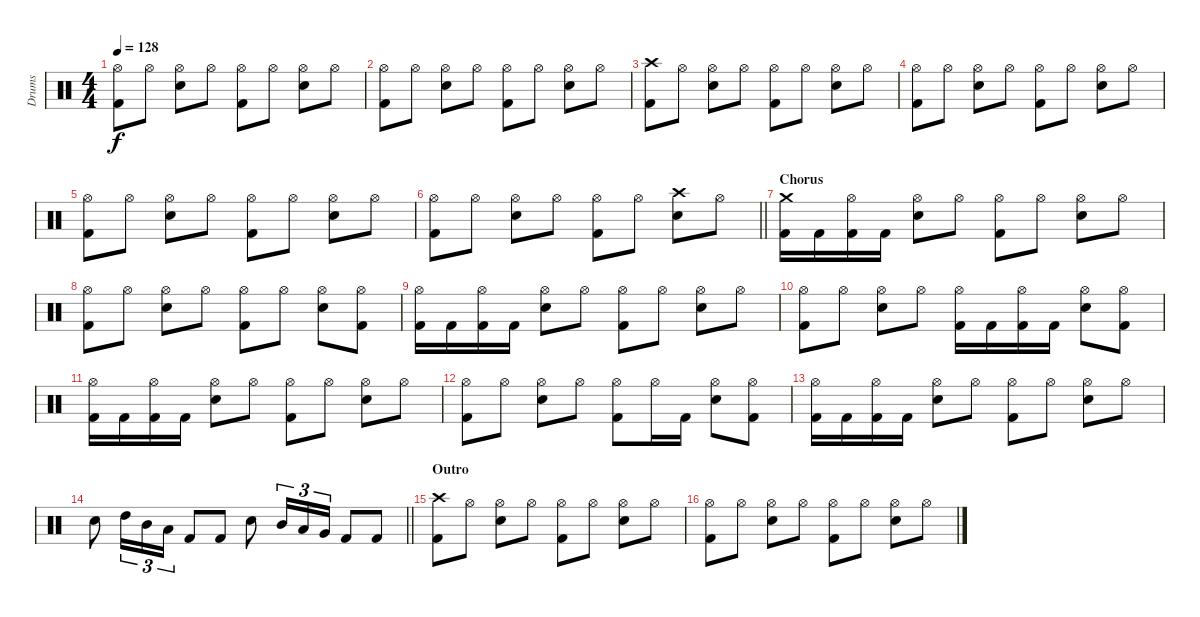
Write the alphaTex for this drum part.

\track ("Drums" "Drums") {instrument percussion}
\staff {score}
\articulation defaults
\ts (4 4)
\tempo 128
\clef neutral
\ks c
("Hi-Hat (open)" "Kick (hit) 2").8{dy f} "Hi-Hat (open)".8 ("Hi-Hat (open)" "Snare (hit) 2").8 "Hi-Hat (open)".8 ("Hi-Hat (open)" "Kick (hit) 2").8 "Hi-Hat (open)".8 ("Hi-Hat (open)" "Snare (hit) 2").8 "Hi-Hat (open)".8 |
("Hi-Hat (open)" "Kick (hit) 2").8 "Hi-Hat (open)".8 ("Hi-Hat (open)" "Snare (hit) 2").8 "Hi-Hat (open)".8 ("Hi-Hat (open)" "Kick (hit) 2").8 "Hi-Hat (open)".8 ("Hi-Hat (open)" "Snare (hit) 2").8 "Hi-Hat (open)".8 |
("Crash high (hit)" "Kick (hit) 2").8 "Hi-Hat (open)".8 ("Hi-Hat (open)" "Snare (hit) 2").8 "Hi-Hat (open)".8 ("Hi-Hat (open)" "Kick (hit) 2").8 "Hi-Hat (open)".8 ("Hi-Hat (open)" "Snare (hit) 2").8 "Hi-Hat (open)".8 |
("Hi-Hat (open)" "Kick (hit) 2").8 "Hi-Hat (open)".8 ("Hi-Hat (open)" "Snare (hit) 2").8 "Hi-Hat (open)".8 ("Hi-Hat (open)" "Kick (hit) 2").8 "Hi-Hat (open)".8 ("Hi-Hat (open)" "Snare (hit) 2").8 "Hi-Hat (open)".8 |
("Hi-Hat (open)" "Kick (hit) 2").8 "Hi-Hat (open)".8 ("Hi-Hat (open)" "Snare (hit) 2").8 "Hi-Hat (open)".8 ("Hi-Hat (open)" "Kick (hit) 2").8 "Hi-Hat (open)".8 ("Hi-Hat (open)" "Snare (hit) 2").8 "Hi-Hat (open)".8 |
\barLineRight lightlight
("Hi-Hat (open)" "Kick (hit) 2").8 "Hi-Hat (open)".8 ("Hi-Hat (open)" "Snare (hit) 2").8 "Hi-Hat (open)".8 ("Hi-Hat (open)" "Kick (hit) 2").8 "Hi-Hat (open)".8 ("Crash high (hit)" "Snare (hit) 2").8 "Hi-Hat (open)".8 |
\section ("" "Chorus")
("Crash medium (hit)" "Kick (hit) 2").16 "Kick (hit) 2".16 ("Hi-Hat (open)" "Kick (hit) 2").16 "Kick (hit) 2".16 ("Hi-Hat (open)" "Snare (hit) 2").8 "Hi-Hat (open)".8 ("Hi-Hat (open)" "Kick (hit) 2").8 "Hi-Hat (open)".8 ("Hi-Hat (open)" "Snare (hit) 2").8 "Hi-Hat (open)".8 |
("Hi-Hat (open)" "Kick (hit) 2").8 "Hi-Hat (open)".8 ("Hi-Hat (open)" "Snare (hit) 2").8 "Hi-Hat (open)".8 ("Hi-Hat (open)" "Kick (hit) 2").8 "Hi-Hat (open)".8 ("Hi-Hat (open)" "Snare (hit) 2").8 ("Hi-Hat (open)" "Kick (hit) 2").8 |
("Hi-Hat (open)" "Kick (hit) 2").16 "Kick (hit) 2".16 ("Hi-Hat (open)" "Kick (hit) 2").16 "Kick (hit) 2".16 ("Hi-Hat (open)" "Snare (hit) 2").8 "Hi-Hat (open)".8 ("Hi-Hat (open)" "Kick (hit) 2").8 "Hi-Hat (open)".8 ("Hi-Hat (open)" "Snare (hit) 2").8 "Hi-Hat (open)".8 |
("Hi-Hat (open)" "Kick (hit) 2").8 "Hi-Hat (open)".8 ("Hi-Hat (open)" "Snare (hit) 2").8 "Hi-Hat (open)".8 ("Hi-Hat (open)" "Kick (hit) 2").16 "Kick (hit) 2".16 ("Hi-Hat (open)" "Kick (hit) 2").16 "Kick (hit) 2".16 ("Hi-Hat (open)" "Snare (hit) 2").8 ("Hi-Hat (open)" "Kick (hit) 2").8 |
("Hi-Hat (open)" "Kick (hit) 2").16 "Kick (hit) 2".16 ("Hi-Hat (open)" "Kick (hit) 2").16 "Kick (hit) 2".16 ("Hi-Hat (open)" "Snare (hit) 2").8 "Hi-Hat (open)".8 ("Hi-Hat (open)" "Kick (hit) 2").8 "Hi-Hat (open)".8 ("Hi-Hat (open)" "Snare (hit) 2").8 "Hi-Hat (open)".8 |
("Hi-Hat (open)" "Kick (hit) 2").8 "Hi-Hat (open)".8 ("Hi-Hat (open)" "Snare (hit) 2").8 "Hi-Hat (open)".8 ("Hi-Hat (open)" "Kick (hit) 2").8 "Hi-Hat (open)".16 "Kick (hit) 2".16 ("Hi-Hat (open)" "Snare (hit) 2").8 ("Hi-Hat (open)" "Kick (hit) 2").8 |
("Hi-Hat (open)" "Kick (hit) 2").16 "Kick (hit) 2".16 ("Hi-Hat (open)" "Kick (hit) 2").16 "Kick (hit) 2".16 ("Hi-Hat (open)" "Snare (hit) 2").8 "Hi-Hat (open)".8 ("Hi-Hat (open)" "Kick (hit) 2").8 "Hi-Hat (open)".8 ("Hi-Hat (open)" "Snare (hit) 2").8 "Hi-Hat (open)".8 |
\barLineRight lightlight "Snare (hit) 2".8 "High Tom (hit)".16{tu (3 2)} "Mid Tom (hit)".16{tu (3 2)} "Low Tom (hit)".16{tu (3 2)} "Kick (hit) 2".8 "Kick (hit) 2".8 "Snare (hit) 2".8 "Mid Tom (hit)".16{tu (3 2)} "Low Tom (hit)".16{tu (3 2)} "Very Low Tom (hit)".16{tu (3 2)} "Kick (hit) 2".8 "Kick (hit) 2".8
|
\section ("" "Outro")
("Crash high (hit)" "Kick (hit) 2").8 "Hi-Hat (open)".8 ("Hi-Hat (open)" "Snare (hit) 2").8 "Hi-Hat (open)".8 ("Hi-Hat (open)" "Kick (hit) 2").8 "Hi-Hat (open)".8 ("Hi-Hat (open)" "Snare (hit) 2").8 "Hi-Hat (open)".8 |
("Hi-Hat (open)" "Kick (hit) 2").8 "Hi-Hat (open)".8 ("Hi-Hat (open)" "Snare (hit) 2").8 "Hi-Hat (open)".8 ("Hi-Hat (open)" "Kick (hit) 2").8 "Hi-Hat (open)".8 ("Hi-Hat (open)" "Snare (hit) 2").8 "Hi-Hat (open)".8
